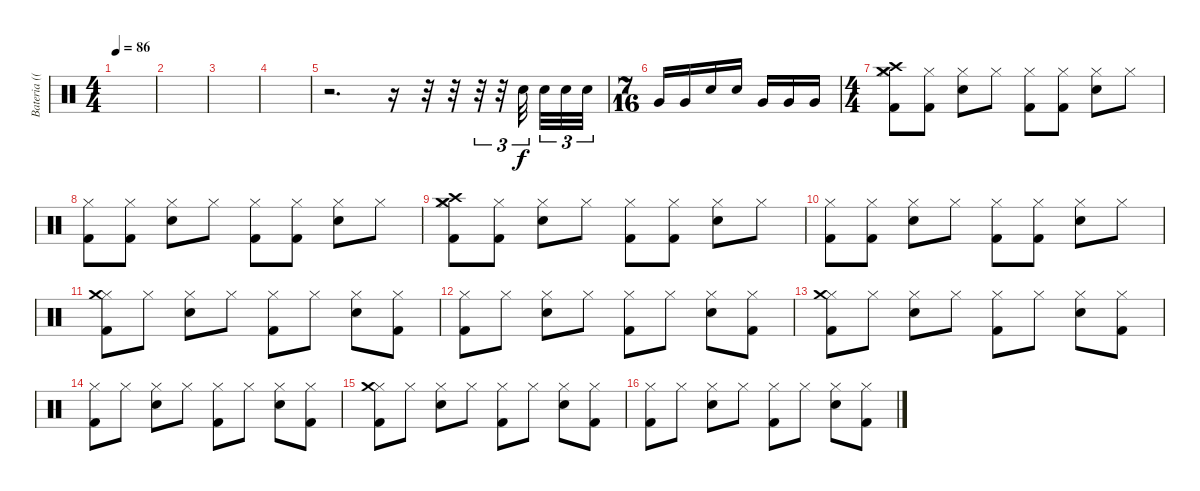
\track ("Bateria ((Matt))" "Bateria ((") {instrument percussion}
\staff {score}
\articulation defaults
\ts (4 4)
\tempo 86
\clef neutral
\ks c
|
|
|
|
r.2{d} r.16 r.32 r.32 r.32{tu (3 2)} r.32{tu (3 2)} "Electric Snare (hit)".32{tu (3 2)} "Electric Snare (hit)".32{tu (3 2)} "Electric Snare (hit)".32{tu (3 2)} "Electric Snare (hit)".32{tu (3 2)} |
\ts (7 16)
"Very Low Tom (hit)".16 "Very Low Tom (hit)".16 "Electric Snare (hit)".16 "Electric Snare (hit)".16 "Very Low Tom (hit)".16 "Very Low Tom (hit)".16 "Very Low Tom (hit)".16 |
\ts (4 4)
("Hi-Hat (closed)" "Crash high (hit)" "Crash medium (hit)" "Kick (hit) 2").8 ("Hi-Hat (closed)" "Kick (hit) 2").8 ("Hi-Hat (closed)" "Electric Snare (hit)").8 "Hi-Hat (closed)".8 ("Hi-Hat (closed)" "Kick (hit) 2").8 ("Hi-Hat (closed)" "Kick (hit) 2").8 ("Hi-Hat (closed)" "Electric Snare (hit)").8 "Hi-Hat (closed)".8 |
("Hi-Hat (closed)" "Kick (hit) 2").8 ("Hi-Hat (closed)" "Kick (hit) 2").8 ("Hi-Hat (closed)" "Electric Snare (hit)").8 "Hi-Hat (closed)".8 ("Hi-Hat (closed)" "Kick (hit) 2").8 ("Hi-Hat (closed)" "Kick (hit) 2").8 ("Hi-Hat (closed)" "Electric Snare (hit)").8 "Hi-Hat (closed)".8 |
("Hi-Hat (closed)" "Crash high (hit)" "Crash medium (hit)" "Kick (hit) 2").8 ("Hi-Hat (closed)" "Kick (hit) 2").8 ("Hi-Hat (closed)" "Electric Snare (hit)").8 "Hi-Hat (closed)".8 ("Hi-Hat (closed)" "Kick (hit) 2").8 ("Hi-Hat (closed)" "Kick (hit) 2").8 ("Hi-Hat (closed)" "Electric Snare (hit)").8 "Hi-Hat (closed)".8 |
("Hi-Hat (closed)" "Kick (hit) 2").8 ("Hi-Hat (closed)" "Kick (hit) 2").8 ("Hi-Hat (closed)" "Electric Snare (hit)").8 "Hi-Hat (closed)".8 ("Hi-Hat (closed)" "Kick (hit) 2").8 ("Hi-Hat (closed)" "Kick (hit) 2").8 ("Hi-Hat (closed)" "Electric Snare (hit)").8 "Hi-Hat (closed)".8 |
("Hi-Hat (closed)" "Crash medium (hit)" "Kick (hit) 2").8 "Hi-Hat (closed)".8 ("Hi-Hat (closed)" "Electric Snare (hit)").8 "Hi-Hat (closed)".8 ("Hi-Hat (closed)" "Kick (hit) 2").8 "Hi-Hat (closed)".8 ("Hi-Hat (closed)" "Electric Snare (hit)").8 ("Hi-Hat (closed)" "Kick (hit) 2").8 |
("Hi-Hat (closed)" "Kick (hit) 2").8 "Hi-Hat (closed)".8 ("Hi-Hat (closed)" "Electric Snare (hit)").8 "Hi-Hat (closed)".8 ("Hi-Hat (closed)" "Kick (hit) 2").8 "Hi-Hat (closed)".8 ("Hi-Hat (closed)" "Electric Snare (hit)").8 ("Hi-Hat (closed)" "Kick (hit) 2").8 |
("Hi-Hat (closed)" "Crash medium (hit)" "Kick (hit) 2").8 "Hi-Hat (closed)".8 ("Hi-Hat (closed)" "Electric Snare (hit)").8 "Hi-Hat (closed)".8 ("Hi-Hat (closed)" "Kick (hit) 2").8 "Hi-Hat (closed)".8 ("Hi-Hat (closed)" "Electric Snare (hit)").8 ("Hi-Hat (closed)" "Kick (hit) 2").8 |
("Hi-Hat (closed)" "Kick (hit) 2").8 "Hi-Hat (closed)".8 ("Hi-Hat (closed)" "Electric Snare (hit)").8 "Hi-Hat (closed)".8 ("Hi-Hat (closed)" "Kick (hit) 2").8 "Hi-Hat (closed)".8 ("Hi-Hat (closed)" "Electric Snare (hit)").8 ("Hi-Hat (closed)" "Kick (hit) 2").8 |
("Hi-Hat (closed)" "Crash medium (hit)" "Kick (hit) 2").8 "Hi-Hat (closed)".8 ("Hi-Hat (closed)" "Electric Snare (hit)").8 "Hi-Hat (closed)".8 ("Hi-Hat (closed)" "Kick (hit) 2").8 "Hi-Hat (closed)".8 ("Hi-Hat (closed)" "Electric Snare (hit)").8 ("Hi-Hat (closed)" "Kick (hit) 2").8 |
("Hi-Hat (closed)" "Kick (hit) 2").8 "Hi-Hat (closed)".8 ("Hi-Hat (closed)" "Electric Snare (hit)").8 "Hi-Hat (closed)".8 ("Hi-Hat (closed)" "Kick (hit) 2").8 "Hi-Hat (closed)".8 ("Hi-Hat (closed)" "Electric Snare (hit)").8 ("Hi-Hat (closed)" "Kick (hit) 2").8
